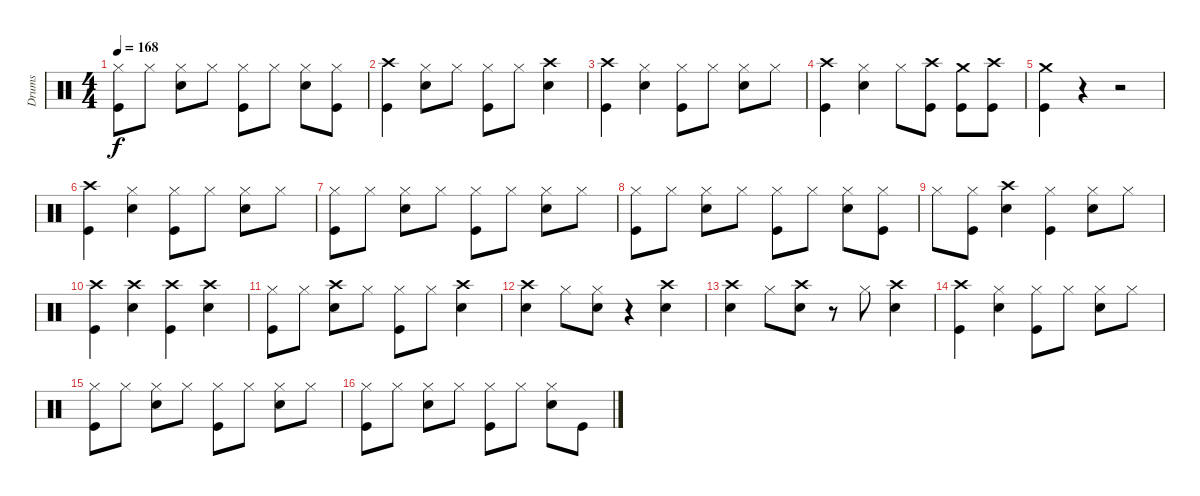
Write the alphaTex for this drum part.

\track ("Drums" "Drums") {instrument percussion}
\staff {score}
\articulation defaults
\ts (4 4)
\tempo 168
\clef neutral
\ks c
("Hi-Hat (closed)" "Kick (hit)").8{dy f} "Hi-Hat (closed)".8 ("Hi-Hat (closed)" "Electric Snare (hit)").8 "Hi-Hat (closed)".8 ("Hi-Hat (closed)" "Kick (hit)").8 "Hi-Hat (closed)".8 ("Hi-Hat (closed)" "Electric Snare (hit)").8 ("Hi-Hat (closed)" "Kick (hit)").8 |
("Crash high (hit)" "Kick (hit)").4 ("Hi-Hat (closed)" "Electric Snare (hit)").8 "Hi-Hat (closed)".8 ("Hi-Hat (closed)" "Kick (hit)").8 "Hi-Hat (closed)".8 ("Crash high (hit)" "Electric Snare (hit)").4 |
("Crash high (hit)" "Kick (hit)").4 ("Hi-Hat (closed)" "Electric Snare (hit)").4 ("Hi-Hat (closed)" "Kick (hit)").8 "Hi-Hat (closed)".8 ("Hi-Hat (closed)" "Electric Snare (hit)").8 "Hi-Hat (closed)".8 |
("Crash high (hit)" "Kick (hit)").4 ("Hi-Hat (closed)" "Electric Snare (hit)").4 "Hi-Hat (closed)".8 ("Crash high (hit)" "Kick (hit)").8 ("Crash medium (hit)" "Kick (hit)").8 ("Crash high (hit)" "Kick (hit)").8 |
("Crash medium (hit)" "Kick (hit)").4 r.4 r.2 |
("Crash high (hit)" "Kick (hit)").4 ("Hi-Hat (closed)" "Electric Snare (hit)").4 ("Hi-Hat (closed)" "Kick (hit)").8 "Hi-Hat (closed)".8 ("Hi-Hat (closed)" "Electric Snare (hit)").8 "Hi-Hat (closed)".8 |
("Hi-Hat (closed)" "Kick (hit)").8 "Hi-Hat (closed)".8 ("Hi-Hat (closed)" "Electric Snare (hit)").8 "Hi-Hat (closed)".8 ("Hi-Hat (closed)" "Kick (hit)").8 "Hi-Hat (closed)".8 ("Hi-Hat (closed)" "Electric Snare (hit)").8 "Hi-Hat (closed)".8 |
("Hi-Hat (closed)" "Kick (hit)").8 "Hi-Hat (closed)".8 ("Hi-Hat (closed)" "Electric Snare (hit)").8 "Hi-Hat (closed)".8 ("Hi-Hat (closed)" "Kick (hit)").8 "Hi-Hat (closed)".8 ("Hi-Hat (closed)" "Electric Snare (hit)").8 ("Hi-Hat (closed)" "Kick (hit)").8 |
"Hi-Hat (closed)".8 ("Hi-Hat (closed)" "Kick (hit)").8 ("Crash high (hit)" "Electric Snare (hit)").4 ("Hi-Hat (closed)" "Kick (hit)").4 ("Hi-Hat (closed)" "Electric Snare (hit)").8 "Hi-Hat (closed)".8 |
("Crash high (hit)" "Kick (hit)").4 ("Crash high (hit)" "Electric Snare (hit)").4 ("Crash high (hit)" "Kick (hit)").4 ("Crash high (hit)" "Electric Snare (hit)").4 |
("Hi-Hat (closed)" "Kick (hit)").8 "Hi-Hat (closed)".8 ("Crash high (hit)" "Electric Snare (hit)").8 "Hi-Hat (closed)".8 ("Hi-Hat (closed)" "Kick (hit)").8 "Hi-Hat (closed)".8 ("Crash high (hit)" "Electric Snare (hit)").4 |
("Crash high (hit)" "Electric Snare (hit)").4 "Hi-Hat (closed)".8 ("Hi-Hat (closed)" "Electric Snare (hit)").8 r.4 ("Crash high (hit)" "Electric Snare (hit)").4 |
("Crash high (hit)" "Electric Snare (hit)").4 "Hi-Hat (closed)".8 ("Crash high (hit)" "Electric Snare (hit)").8 r.8 "Hi-Hat (closed)".8 ("Crash high (hit)" "Electric Snare (hit)").4 |
("Crash high (hit)" "Kick (hit)").4 ("Hi-Hat (closed)" "Electric Snare (hit)").4 ("Hi-Hat (closed)" "Kick (hit)").8 "Hi-Hat (closed)".8 ("Hi-Hat (closed)" "Electric Snare (hit)").8 "Hi-Hat (closed)".8 |
("Hi-Hat (closed)" "Kick (hit)").8 "Hi-Hat (closed)".8 ("Hi-Hat (closed)" "Electric Snare (hit)").8 "Hi-Hat (closed)".8 ("Hi-Hat (closed)" "Kick (hit)").8 "Hi-Hat (closed)".8 ("Hi-Hat (closed)" "Electric Snare (hit)").8 "Hi-Hat (closed)".8 |
("Hi-Hat (closed)" "Kick (hit)").8 "Hi-Hat (closed)".8 ("Hi-Hat (closed)" "Electric Snare (hit)").8 "Hi-Hat (closed)".8 ("Hi-Hat (closed)" "Kick (hit)").8 "Hi-Hat (closed)".8 ("Hi-Hat (closed)" "Electric Snare (hit)").8 "Kick (hit)".8
